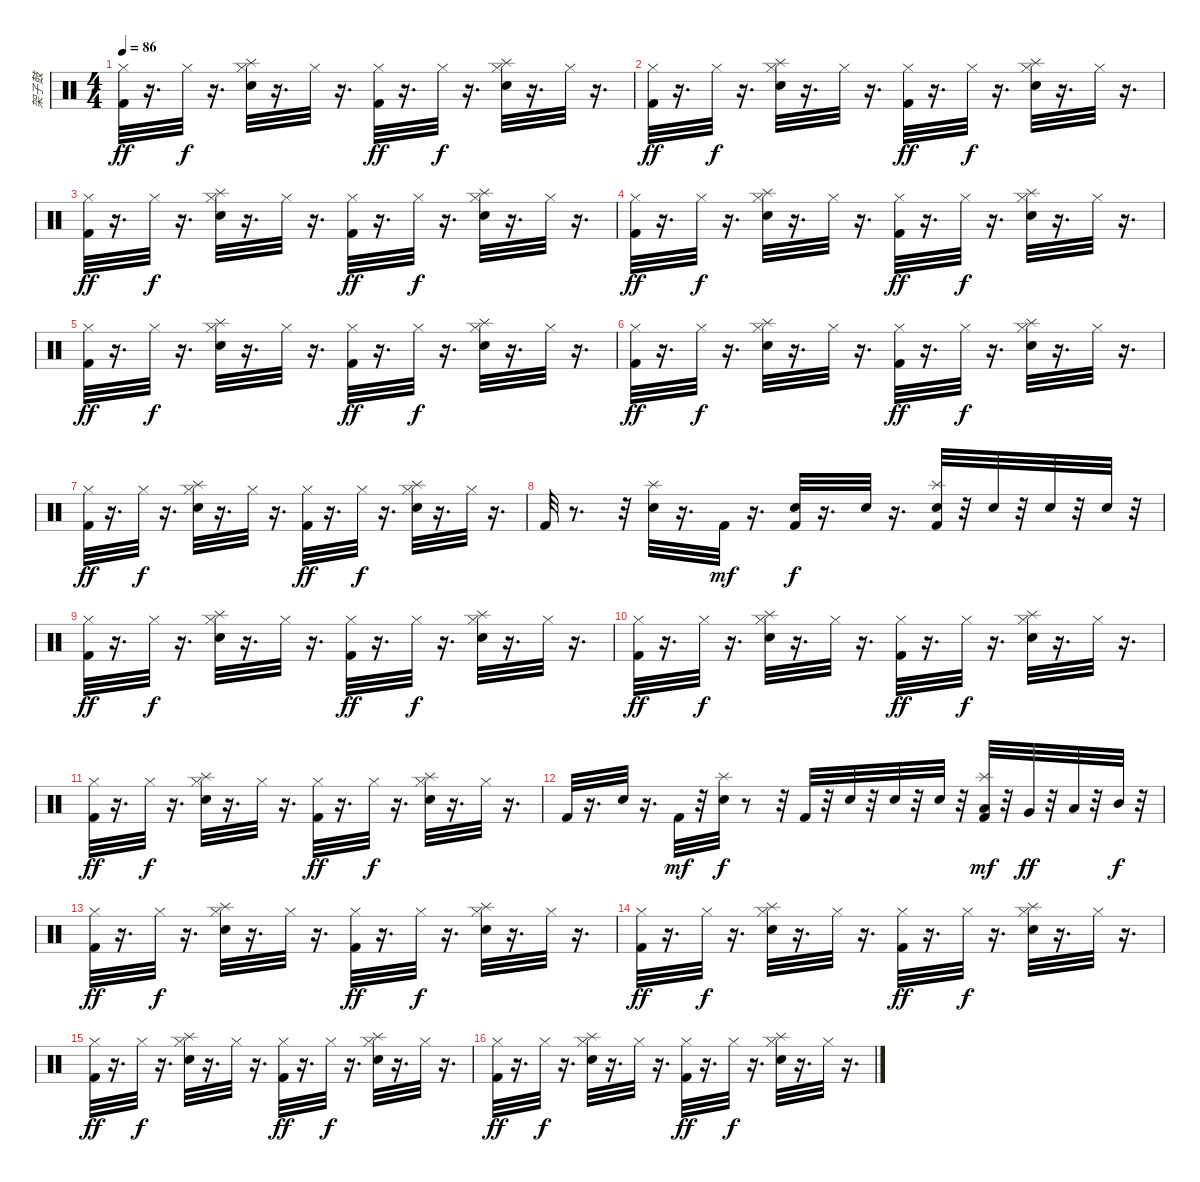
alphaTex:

\track ("架子鼓" "架子鼓") {instrument percussion}
\staff {score}
\articulation defaults
\ts (4 4)
\tempo 86
\clef neutral
\ks c
("Hi-Hat (closed)" "Kick (hit) 2").32{dy ff} r.16{d} "Hi-Hat (closed)".32{dy f} r.16{d} ("Splash (hit)" "Hi-Hat (closed)" "Electric Snare (hit)").32 r.16{d} "Hi-Hat (closed)".32 r.16{d} ("Hi-Hat (closed)" "Kick (hit) 2").32{dy ff} r.16{d} "Hi-Hat (closed)".32{dy f} r.16{d} ("Splash (hit)" "Hi-Hat (closed)" "Electric Snare (hit)").32 r.16{d} "Hi-Hat (closed)".32 r.16{d} |
("Hi-Hat (closed)" "Kick (hit) 2").32{dy ff} r.16{d} "Hi-Hat (closed)".32{dy f} r.16{d} ("Splash (hit)" "Hi-Hat (closed)" "Electric Snare (hit)").32 r.16{d} "Hi-Hat (closed)".32 r.16{d} ("Hi-Hat (closed)" "Kick (hit) 2").32{dy ff} r.16{d} "Hi-Hat (closed)".32{dy f} r.16{d} ("Splash (hit)" "Hi-Hat (closed)" "Electric Snare (hit)").32 r.16{d} "Hi-Hat (closed)".32 r.16{d} |
("Hi-Hat (closed)" "Kick (hit) 2").32{dy ff} r.16{d} "Hi-Hat (closed)".32{dy f} r.16{d} ("Splash (hit)" "Hi-Hat (closed)" "Electric Snare (hit)").32 r.16{d} "Hi-Hat (closed)".32 r.16{d} ("Hi-Hat (closed)" "Kick (hit) 2").32{dy ff} r.16{d} "Hi-Hat (closed)".32{dy f} r.16{d} ("Splash (hit)" "Hi-Hat (closed)" "Electric Snare (hit)").32 r.16{d} "Hi-Hat (closed)".32 r.16{d} |
("Hi-Hat (closed)" "Kick (hit) 2").32{dy ff} r.16{d} "Hi-Hat (closed)".32{dy f} r.16{d} ("Splash (hit)" "Hi-Hat (closed)" "Electric Snare (hit)").32 r.16{d} "Hi-Hat (closed)".32 r.16{d} ("Hi-Hat (closed)" "Kick (hit) 2").32{dy ff} r.16{d} "Hi-Hat (closed)".32{dy f} r.16{d} ("Splash (hit)" "Hi-Hat (closed)" "Electric Snare (hit)").32 r.16{d} "Hi-Hat (closed)".32 r.16{d} |
("Hi-Hat (closed)" "Kick (hit) 2").32{dy ff} r.16{d} "Hi-Hat (closed)".32{dy f} r.16{d} ("Splash (hit)" "Hi-Hat (closed)" "Electric Snare (hit)").32 r.16{d} "Hi-Hat (closed)".32 r.16{d} ("Hi-Hat (closed)" "Kick (hit) 2").32{dy ff} r.16{d} "Hi-Hat (closed)".32{dy f} r.16{d} ("Splash (hit)" "Hi-Hat (closed)" "Electric Snare (hit)").32 r.16{d} "Hi-Hat (closed)".32 r.16{d} |
("Hi-Hat (closed)" "Kick (hit) 2").32{dy ff} r.16{d} "Hi-Hat (closed)".32{dy f} r.16{d} ("Splash (hit)" "Hi-Hat (closed)" "Electric Snare (hit)").32 r.16{d} "Hi-Hat (closed)".32 r.16{d} ("Hi-Hat (closed)" "Kick (hit) 2").32{dy ff} r.16{d} "Hi-Hat (closed)".32{dy f} r.16{d} ("Splash (hit)" "Hi-Hat (closed)" "Electric Snare (hit)").32 r.16{d} "Hi-Hat (closed)".32 r.16{d} |
("Hi-Hat (closed)" "Kick (hit) 2").32{dy ff} r.16{d} "Hi-Hat (closed)".32{dy f} r.16{d} ("Splash (hit)" "Hi-Hat (closed)" "Electric Snare (hit)").32 r.16{d} "Hi-Hat (closed)".32 r.16{d} ("Hi-Hat (closed)" "Kick (hit) 2").32{dy ff} r.16{d} "Hi-Hat (closed)".32{dy f} r.16{d} ("Splash (hit)" "Hi-Hat (closed)" "Electric Snare (hit)").32 r.16{d} "Hi-Hat (closed)".32 r.16{d} |
"Kick (hit) 2".32 r.8{d} r.32 ("Splash (hit)" "Electric Snare (hit)").32 r.16{d} "Kick (hit) 2".32{dy mf} r.16{d} ("Electric Snare (hit)" "Kick (hit) 2").32{dy f} r.16{d} "Electric Snare (hit)".32 r.16{d} ("Splash (hit)" "Electric Snare (hit)" "Kick (hit) 2").32 r.32 "Electric Snare (hit)".32 r.32 "Electric Snare (hit)".32 r.32 "Electric Snare (hit)".32 r.32 |
("Hi-Hat (closed)" "Kick (hit) 2").32{dy ff} r.16{d} "Hi-Hat (closed)".32{dy f} r.16{d} ("Splash (hit)" "Hi-Hat (closed)" "Electric Snare (hit)").32 r.16{d} "Hi-Hat (closed)".32 r.16{d} ("Hi-Hat (closed)" "Kick (hit) 2").32{dy ff} r.16{d} "Hi-Hat (closed)".32{dy f} r.16{d} ("Splash (hit)" "Hi-Hat (closed)" "Electric Snare (hit)").32 r.16{d} "Hi-Hat (closed)".32 r.16{d} |
("Hi-Hat (closed)" "Kick (hit) 2").32{dy ff} r.16{d} "Hi-Hat (closed)".32{dy f} r.16{d} ("Splash (hit)" "Hi-Hat (closed)" "Electric Snare (hit)").32 r.16{d} "Hi-Hat (closed)".32 r.16{d} ("Hi-Hat (closed)" "Kick (hit) 2").32{dy ff} r.16{d} "Hi-Hat (closed)".32{dy f} r.16{d} ("Splash (hit)" "Hi-Hat (closed)" "Electric Snare (hit)").32 r.16{d} "Hi-Hat (closed)".32 r.16{d} |
("Hi-Hat (closed)" "Kick (hit) 2").32{dy ff} r.16{d} "Hi-Hat (closed)".32{dy f} r.16{d} ("Splash (hit)" "Hi-Hat (closed)" "Electric Snare (hit)").32 r.16{d} "Hi-Hat (closed)".32 r.16{d} ("Hi-Hat (closed)" "Kick (hit) 2").32{dy ff} r.16{d} "Hi-Hat (closed)".32{dy f} r.16{d} ("Splash (hit)" "Hi-Hat (closed)" "Electric Snare (hit)").32 r.16{d} "Hi-Hat (closed)".32 r.16{d} |
"Kick (hit) 2".32 r.16{d} "Electric Snare (hit)".32 r.16{d} "Kick (hit) 2".32{dy mf} r.32 ("Splash (hit)" "Electric Snare (hit)").32{dy f} r.8 r.32 "Kick (hit) 2".32 r.32 "Electric Snare (hit)".32 r.32 "Electric Snare (hit)".32 r.32 "Electric Snare (hit)".32 r.32 ("Splash (hit)" "Low Floor Tom (hit)" "Kick (hit) 2").32{dy mf} r.32 "Very Low Tom (hit)".32{dy ff} r.32 "Low Tom (hit)".32 r.32 "Mid Tom (hit)".32{dy f} r.32 |
("Hi-Hat (closed)" "Kick (hit) 2").32{dy ff} r.16{d} "Hi-Hat (closed)".32{dy f} r.16{d} ("Splash (hit)" "Hi-Hat (closed)" "Electric Snare (hit)").32 r.16{d} "Hi-Hat (closed)".32 r.16{d} ("Hi-Hat (closed)" "Kick (hit) 2").32{dy ff} r.16{d} "Hi-Hat (closed)".32{dy f} r.16{d} ("Splash (hit)" "Hi-Hat (closed)" "Electric Snare (hit)").32 r.16{d} "Hi-Hat (closed)".32 r.16{d} |
("Hi-Hat (closed)" "Kick (hit) 2").32{dy ff} r.16{d} "Hi-Hat (closed)".32{dy f} r.16{d} ("Splash (hit)" "Hi-Hat (closed)" "Electric Snare (hit)").32 r.16{d} "Hi-Hat (closed)".32 r.16{d} ("Hi-Hat (closed)" "Kick (hit) 2").32{dy ff} r.16{d} "Hi-Hat (closed)".32{dy f} r.16{d} ("Splash (hit)" "Hi-Hat (closed)" "Electric Snare (hit)").32 r.16{d} "Hi-Hat (closed)".32 r.16{d} |
("Hi-Hat (closed)" "Kick (hit) 2").32{dy ff} r.16{d} "Hi-Hat (closed)".32{dy f} r.16{d} ("Splash (hit)" "Hi-Hat (closed)" "Electric Snare (hit)").32 r.16{d} "Hi-Hat (closed)".32 r.16{d} ("Hi-Hat (closed)" "Kick (hit) 2").32{dy ff} r.16{d} "Hi-Hat (closed)".32{dy f} r.16{d} ("Splash (hit)" "Hi-Hat (closed)" "Electric Snare (hit)").32 r.16{d} "Hi-Hat (closed)".32 r.16{d} |
("Hi-Hat (closed)" "Kick (hit) 2").32{dy ff} r.16{d} "Hi-Hat (closed)".32{dy f} r.16{d} ("Splash (hit)" "Hi-Hat (closed)" "Electric Snare (hit)").32 r.16{d} "Hi-Hat (closed)".32 r.16{d} ("Hi-Hat (closed)" "Kick (hit) 2").32{dy ff} r.16{d} "Hi-Hat (closed)".32{dy f} r.16{d} ("Splash (hit)" "Hi-Hat (closed)" "Electric Snare (hit)").32 r.16{d} "Hi-Hat (closed)".32 r.16{d}
